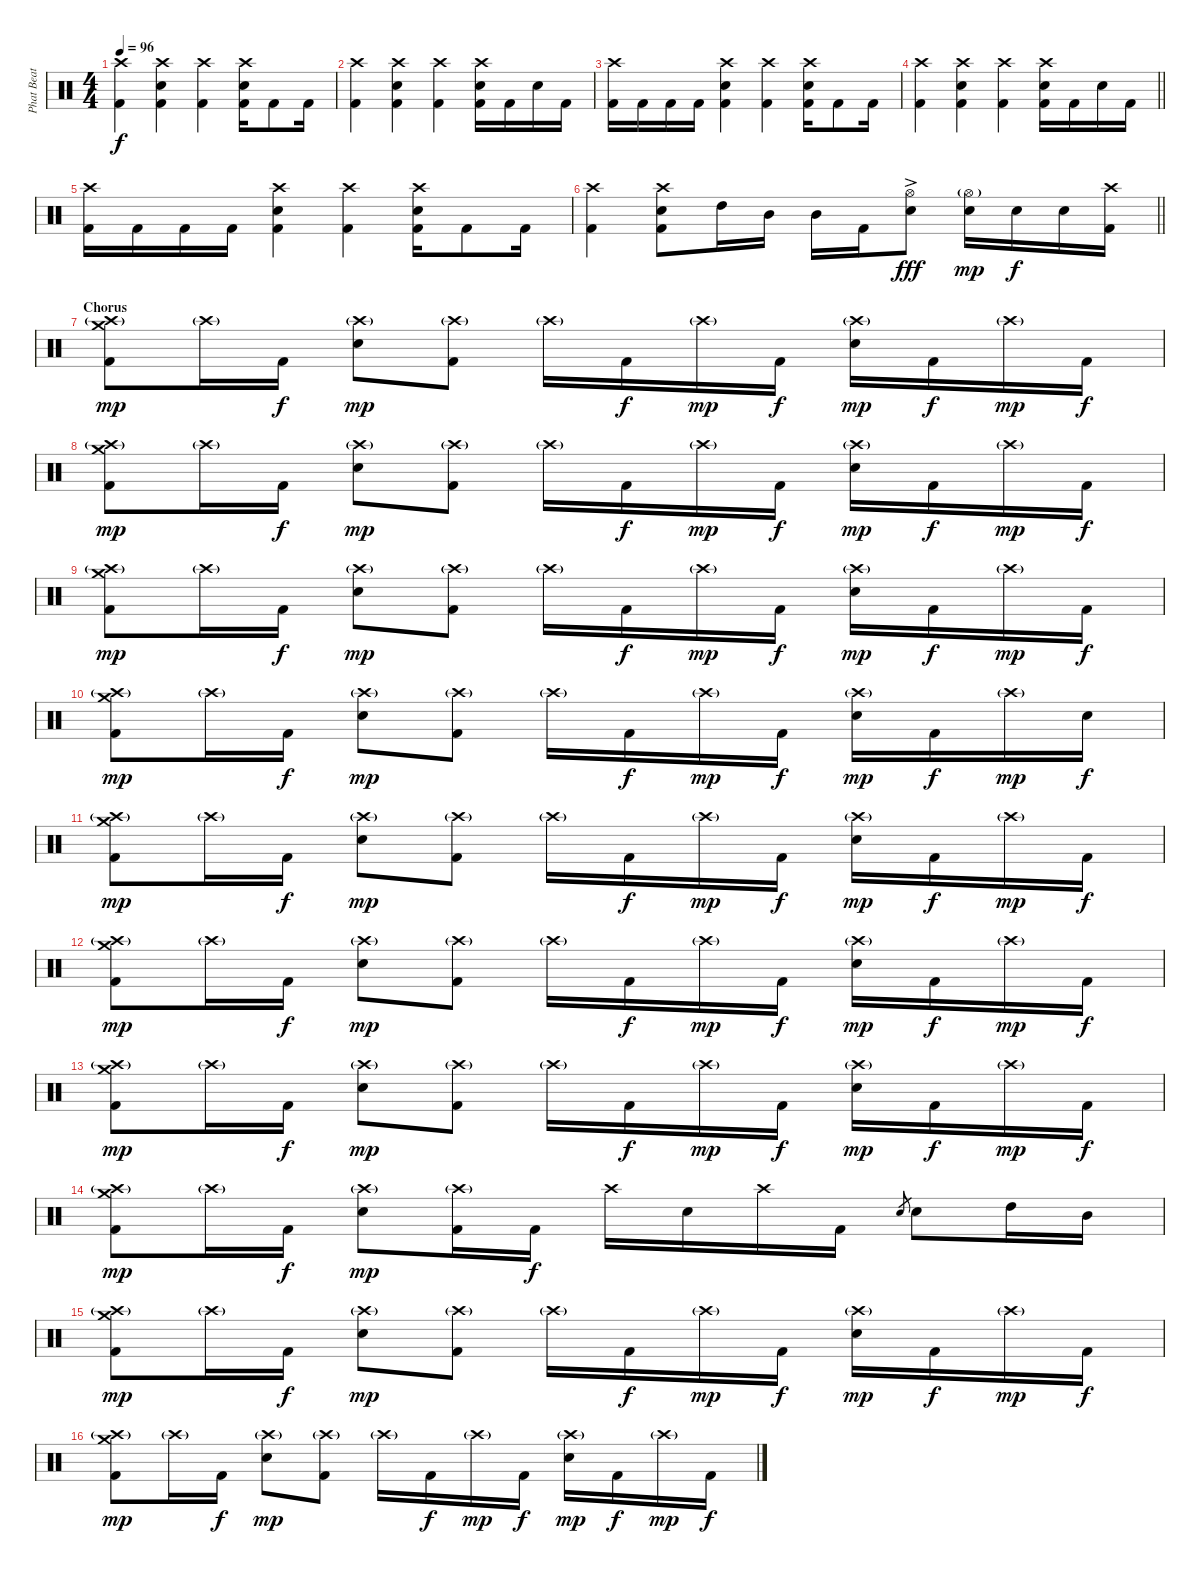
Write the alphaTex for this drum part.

\track ("Phat Beat" "Phat Beat") {instrument percussion}
\staff {score}
\articulation defaults
\ts (4 4)
\tempo 96
\clef neutral
\ks c
("Crash high (hit)" "Kick (hit) 2").4{dy f} ("Crash high (hit)" "Snare (hit) 2" "Kick (hit) 2").4 ("Crash high (hit)" "Kick (hit) 2").4 ("Crash high (hit)" "Snare (hit) 2" "Kick (hit) 2").16 "Kick (hit) 2".8 "Kick (hit) 2".16 |
("Crash high (hit)" "Kick (hit) 2").4 ("Crash high (hit)" "Snare (hit) 2" "Kick (hit) 2").4 ("Crash high (hit)" "Kick (hit) 2").4 ("Crash high (hit)" "Snare (hit) 2" "Kick (hit) 2").16 "Kick (hit) 2".16 "Snare (hit) 2".16 "Kick (hit) 2".16 |
("Crash high (hit)" "Kick (hit) 2").16 "Kick (hit) 2".16 "Kick (hit) 2".16 "Kick (hit) 2".16 ("Crash high (hit)" "Snare (hit) 2" "Kick (hit) 2").4 ("Crash high (hit)" "Kick (hit) 2").4 ("Crash high (hit)" "Snare (hit) 2" "Kick (hit) 2").16 "Kick (hit) 2".8 "Kick (hit) 2".16 |
\barLineRight lightlight
("Crash high (hit)" "Kick (hit) 2").4 ("Crash high (hit)" "Snare (hit) 2" "Kick (hit) 2").4 ("Crash high (hit)" "Kick (hit) 2").4 ("Crash high (hit)" "Snare (hit) 2" "Kick (hit) 2").16 "Kick (hit) 2".16 "Snare (hit) 2".16 "Kick (hit) 2".16 |
("Crash high (hit)" "Kick (hit) 2").16 "Kick (hit) 2".16 "Kick (hit) 2".16 "Kick (hit) 2".16 ("Crash high (hit)" "Snare (hit) 2" "Kick (hit) 2").4 ("Crash high (hit)" "Kick (hit) 2").4 ("Crash high (hit)" "Snare (hit) 2" "Kick (hit) 2").16 "Kick (hit) 2".8 "Kick (hit) 2".16 |
\barLineRight lightlight
("Crash high (hit)" "Kick (hit) 2").4 ("Crash high (hit)" "Snare (hit) 2" "Kick (hit) 2").8 "High Tom (hit)".16 "Mid Tom (hit)".16 "Mid Tom (hit)".16 "Kick (hit) 2".16 ("Hi-Hat (open)"{ac} "Snare (hit) 2").8{dy fff} ("Hi-Hat (open)"{g} "Snare (hit) 2").16{dy mp} "Snare (hit) 2".16{dy f} "Snare (hit) 2".16 ("Crash high (hit)" "Kick (hit) 2").16 |
\section ("" "Chorus")
("Crash high (hit)"{g} "Crash medium (hit)" "Kick (hit) 2").8{dy mp} "Crash high (hit)"{g}.16 "Kick (hit) 2".16{dy f} ("Crash high (hit)"{g} "Snare (hit) 2").8{dy mp} ("Crash high (hit)"{g} "Kick (hit) 2").8 "Crash high (hit)"{g}.16 "Kick (hit) 2".16{dy f} "Crash high (hit)"{g}.16{dy mp} "Kick (hit) 2".16{dy f} ("Crash high (hit)"{g} "Snare (hit) 2").16{dy mp} "Kick (hit) 2".16{dy f} "Crash high (hit)"{g}.16{dy mp} "Kick (hit) 2".16{dy f} |
("Crash high (hit)"{g} "Crash medium (hit)" "Kick (hit) 2").8{dy mp} "Crash high (hit)"{g}.16 "Kick (hit) 2".16{dy f} ("Crash high (hit)"{g} "Snare (hit) 2").8{dy mp} ("Crash high (hit)"{g} "Kick (hit) 2").8 "Crash high (hit)"{g}.16 "Kick (hit) 2".16{dy f} "Crash high (hit)"{g}.16{dy mp} "Kick (hit) 2".16{dy f} ("Crash high (hit)"{g} "Snare (hit) 2").16{dy mp} "Kick (hit) 2".16{dy f} "Crash high (hit)"{g}.16{dy mp} "Kick (hit) 2".16{dy f} |
("Crash high (hit)"{g} "Crash medium (hit)" "Kick (hit) 2").8{dy mp} "Crash high (hit)"{g}.16 "Kick (hit) 2".16{dy f} ("Crash high (hit)"{g} "Snare (hit) 2").8{dy mp} ("Crash high (hit)"{g} "Kick (hit) 2").8 "Crash high (hit)"{g}.16 "Kick (hit) 2".16{dy f} "Crash high (hit)"{g}.16{dy mp} "Kick (hit) 2".16{dy f} ("Crash high (hit)"{g} "Snare (hit) 2").16{dy mp} "Kick (hit) 2".16{dy f} "Crash high (hit)"{g}.16{dy mp} "Kick (hit) 2".16{dy f} |
("Crash high (hit)"{g} "Crash medium (hit)" "Kick (hit) 2").8{dy mp} "Crash high (hit)"{g}.16 "Kick (hit) 2".16{dy f} ("Crash high (hit)"{g} "Snare (hit) 2").8{dy mp} ("Crash high (hit)"{g} "Kick (hit) 2").8 "Crash high (hit)"{g}.16 "Kick (hit) 2".16{dy f} "Crash high (hit)"{g}.16{dy mp} "Kick (hit) 2".16{dy f} ("Crash high (hit)"{g} "Snare (hit) 2").16{dy mp} "Kick (hit) 2".16{dy f} "Crash high (hit)"{g}.16{dy mp} "Snare (hit) 2".16{dy f} |
("Crash high (hit)"{g} "Crash medium (hit)" "Kick (hit) 2").8{dy mp} "Crash high (hit)"{g}.16 "Kick (hit) 2".16{dy f} ("Crash high (hit)"{g} "Snare (hit) 2").8{dy mp} ("Crash high (hit)"{g} "Kick (hit) 2").8 "Crash high (hit)"{g}.16 "Kick (hit) 2".16{dy f} "Crash high (hit)"{g}.16{dy mp} "Kick (hit) 2".16{dy f} ("Crash high (hit)"{g} "Snare (hit) 2").16{dy mp} "Kick (hit) 2".16{dy f} "Crash high (hit)"{g}.16{dy mp} "Kick (hit) 2".16{dy f} |
("Crash high (hit)"{g} "Crash medium (hit)" "Kick (hit) 2").8{dy mp} "Crash high (hit)"{g}.16 "Kick (hit) 2".16{dy f} ("Crash high (hit)"{g} "Snare (hit) 2").8{dy mp} ("Crash high (hit)"{g} "Kick (hit) 2").8 "Crash high (hit)"{g}.16 "Kick (hit) 2".16{dy f} "Crash high (hit)"{g}.16{dy mp} "Kick (hit) 2".16{dy f} ("Crash high (hit)"{g} "Snare (hit) 2").16{dy mp} "Kick (hit) 2".16{dy f} "Crash high (hit)"{g}.16{dy mp} "Kick (hit) 2".16{dy f} |
("Crash high (hit)"{g} "Crash medium (hit)" "Kick (hit) 2").8{dy mp} "Crash high (hit)"{g}.16 "Kick (hit) 2".16{dy f} ("Crash high (hit)"{g} "Snare (hit) 2").8{dy mp} ("Crash high (hit)"{g} "Kick (hit) 2").8 "Crash high (hit)"{g}.16 "Kick (hit) 2".16{dy f} "Crash high (hit)"{g}.16{dy mp} "Kick (hit) 2".16{dy f} ("Crash high (hit)"{g} "Snare (hit) 2").16{dy mp} "Kick (hit) 2".16{dy f} "Crash high (hit)"{g}.16{dy mp} "Kick (hit) 2".16{dy f} |
("Crash high (hit)"{g} "Crash medium (hit)" "Kick (hit) 2").8{dy mp} "Crash high (hit)"{g}.16 "Kick (hit) 2".16{dy f} ("Crash high (hit)"{g} "Snare (hit) 2").8{dy mp} ("Crash high (hit)"{g} "Kick (hit) 2").16 "Kick (hit) 2".16{dy f} "Crash high (hit)".16 "Snare (hit) 2".16 "Crash high (hit)".16 "Kick (hit) 2".16 "Snare (hit) 2".8{gr} "Snare (hit) 2".8 "High Tom (hit)".16 "Mid Tom (hit)".16 |
("Crash high (hit)"{g} "Crash medium (hit)" "Kick (hit) 2").8{dy mp} "Crash high (hit)"{g}.16 "Kick (hit) 2".16{dy f} ("Crash high (hit)"{g} "Snare (hit) 2").8{dy mp} ("Crash high (hit)"{g} "Kick (hit) 2").8 "Crash high (hit)"{g}.16 "Kick (hit) 2".16{dy f} "Crash high (hit)"{g}.16{dy mp} "Kick (hit) 2".16{dy f} ("Crash high (hit)"{g} "Snare (hit) 2").16{dy mp} "Kick (hit) 2".16{dy f} "Crash high (hit)"{g}.16{dy mp} "Kick (hit) 2".16{dy f} |
("Crash high (hit)"{g} "Crash medium (hit)" "Kick (hit) 2").8{dy mp} "Crash high (hit)"{g}.16 "Kick (hit) 2".16{dy f} ("Crash high (hit)"{g} "Snare (hit) 2").8{dy mp} ("Crash high (hit)"{g} "Kick (hit) 2").8 "Crash high (hit)"{g}.16 "Kick (hit) 2".16{dy f} "Crash high (hit)"{g}.16{dy mp} "Kick (hit) 2".16{dy f} ("Crash high (hit)"{g} "Snare (hit) 2").16{dy mp} "Kick (hit) 2".16{dy f} "Crash high (hit)"{g}.16{dy mp} "Kick (hit) 2".16{dy f}
